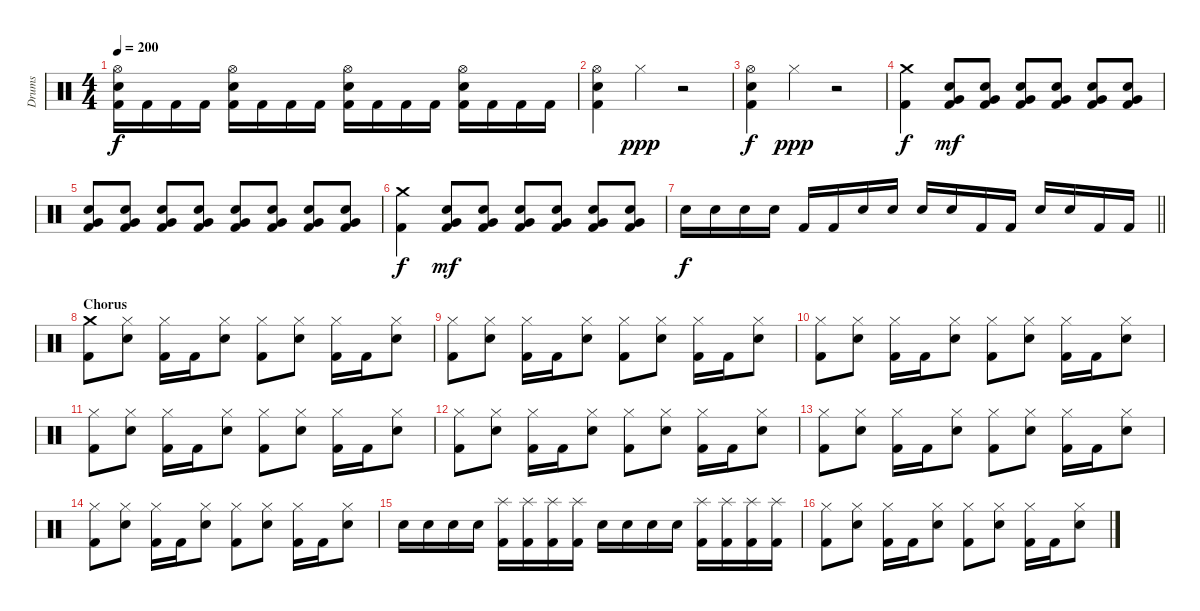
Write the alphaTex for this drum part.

\track ("Drums" "Drums") {instrument percussion}
\staff {score}
\articulation defaults
\ts (4 4)
\tempo 200
\clef neutral
\ks c
("Kick (hit) 2" "Snare (hit) 2" "Hi-Hat (open)").16{dy f} "Kick (hit) 2".16 "Kick (hit) 2".16 "Kick (hit) 2".16 ("Kick (hit) 2" "Snare (hit) 2" "Hi-Hat (open)").16 "Kick (hit) 2".16 "Kick (hit) 2".16 "Kick (hit) 2".16 ("Kick (hit) 2" "Snare (hit) 2" "Hi-Hat (open)").16 "Kick (hit) 2".16 "Kick (hit) 2".16 "Kick (hit) 2".16 ("Kick (hit) 2" "Snare (hit) 2" "Hi-Hat (open)").16 "Kick (hit) 2".16 "Kick (hit) 2".16 "Kick (hit) 2".16 |
("Kick (hit) 2" "Snare (hit) 2" "Hi-Hat (open)").4 "Hi-Hat (closed)".4{dy ppp} r.2 |
("Kick (hit) 2" "Snare (hit) 2" "Hi-Hat (open)").4{dy f} "Hi-Hat (closed)".4{dy ppp} r.2 |
("Kick (hit) 2" "Crash medium (hit)").4{dy f} ("Kick (hit) 2" "Snare (hit) 2" "Very Low Tom (hit)").8{dy mf} ("Kick (hit) 2" "Snare (hit) 2" "Very Low Tom (hit)").8 ("Kick (hit) 2" "Snare (hit) 2" "Very Low Tom (hit)").8 ("Kick (hit) 2" "Snare (hit) 2" "Very Low Tom (hit)").8 ("Kick (hit) 2" "Snare (hit) 2" "Very Low Tom (hit)").8 ("Kick (hit) 2" "Snare (hit) 2" "Very Low Tom (hit)").8 |
("Kick (hit) 2" "Snare (hit) 2" "Very Low Tom (hit)").8 ("Kick (hit) 2" "Snare (hit) 2" "Very Low Tom (hit)").8 ("Kick (hit) 2" "Snare (hit) 2" "Very Low Tom (hit)").8 ("Kick (hit) 2" "Snare (hit) 2" "Very Low Tom (hit)").8 ("Kick (hit) 2" "Snare (hit) 2" "Very Low Tom (hit)").8 ("Kick (hit) 2" "Snare (hit) 2" "Very Low Tom (hit)").8 ("Kick (hit) 2" "Snare (hit) 2" "Very Low Tom (hit)").8 ("Kick (hit) 2" "Snare (hit) 2" "Very Low Tom (hit)").8 |
("Kick (hit) 2" "Crash medium (hit)").4{dy f} ("Kick (hit) 2" "Snare (hit) 2" "Very Low Tom (hit)").8{dy mf} ("Kick (hit) 2" "Snare (hit) 2" "Very Low Tom (hit)").8 ("Kick (hit) 2" "Snare (hit) 2" "Very Low Tom (hit)").8 ("Kick (hit) 2" "Snare (hit) 2" "Very Low Tom (hit)").8 ("Kick (hit) 2" "Snare (hit) 2" "Very Low Tom (hit)").8 ("Kick (hit) 2" "Snare (hit) 2" "Very Low Tom (hit)").8 |
\barLineRight lightlight "Snare (hit) 2".16{dy f} "Snare (hit) 2".16 "Snare (hit) 2".16 "Snare (hit) 2".16 "Kick (hit) 2".16 "Kick (hit) 2".16 "Snare (hit) 2".16 "Snare (hit) 2".16 "Snare (hit) 2".16 "Snare (hit) 2".16 "Kick (hit) 2".16 "Kick (hit) 2".16 "Snare (hit) 2".16 "Snare (hit) 2".16 "Kick (hit) 2".16 "Kick (hit) 2".16
|
\section ("" "Chorus")
("Kick (hit) 2" "Crash medium (hit)").8 ("Snare (hit) 2" "Hi-Hat (closed)").8 ("Kick (hit) 2" "Hi-Hat (closed)").16 "Kick (hit) 2".16 ("Snare (hit) 2" "Hi-Hat (closed)").8 ("Kick (hit) 2" "Hi-Hat (closed)").8 ("Snare (hit) 2" "Hi-Hat (closed)").8 ("Kick (hit) 2" "Hi-Hat (closed)").16 "Kick (hit) 2".16 ("Snare (hit) 2" "Hi-Hat (closed)").8 |
("Kick (hit) 2" "Hi-Hat (closed)").8 ("Snare (hit) 2" "Hi-Hat (closed)").8 ("Kick (hit) 2" "Hi-Hat (closed)").16 "Kick (hit) 2".16 ("Snare (hit) 2" "Hi-Hat (closed)").8 ("Kick (hit) 2" "Hi-Hat (closed)").8 ("Snare (hit) 2" "Hi-Hat (closed)").8 ("Kick (hit) 2" "Hi-Hat (closed)").16 "Kick (hit) 2".16 ("Snare (hit) 2" "Hi-Hat (closed)").8 |
("Kick (hit) 2" "Hi-Hat (closed)").8 ("Snare (hit) 2" "Hi-Hat (closed)").8 ("Kick (hit) 2" "Hi-Hat (closed)").16 "Kick (hit) 2".16 ("Snare (hit) 2" "Hi-Hat (closed)").8 ("Kick (hit) 2" "Hi-Hat (closed)").8 ("Snare (hit) 2" "Hi-Hat (closed)").8 ("Kick (hit) 2" "Hi-Hat (closed)").16 "Kick (hit) 2".16 ("Snare (hit) 2" "Hi-Hat (closed)").8 |
("Kick (hit) 2" "Hi-Hat (closed)").8 ("Snare (hit) 2" "Hi-Hat (closed)").8 ("Kick (hit) 2" "Hi-Hat (closed)").16 "Kick (hit) 2".16 ("Snare (hit) 2" "Hi-Hat (closed)").8 ("Kick (hit) 2" "Hi-Hat (closed)").8 ("Snare (hit) 2" "Hi-Hat (closed)").8 ("Kick (hit) 2" "Hi-Hat (closed)").16 "Kick (hit) 2".16 ("Snare (hit) 2" "Hi-Hat (closed)").8 |
("Kick (hit) 2" "Hi-Hat (closed)").8 ("Snare (hit) 2" "Hi-Hat (closed)").8 ("Kick (hit) 2" "Hi-Hat (closed)").16 "Kick (hit) 2".16 ("Snare (hit) 2" "Hi-Hat (closed)").8 ("Kick (hit) 2" "Hi-Hat (closed)").8 ("Snare (hit) 2" "Hi-Hat (closed)").8 ("Kick (hit) 2" "Hi-Hat (closed)").16 "Kick (hit) 2".16 ("Snare (hit) 2" "Hi-Hat (closed)").8 |
("Kick (hit) 2" "Hi-Hat (closed)").8 ("Snare (hit) 2" "Hi-Hat (closed)").8 ("Kick (hit) 2" "Hi-Hat (closed)").16 "Kick (hit) 2".16 ("Snare (hit) 2" "Hi-Hat (closed)").8 ("Kick (hit) 2" "Hi-Hat (closed)").8 ("Snare (hit) 2" "Hi-Hat (closed)").8 ("Kick (hit) 2" "Hi-Hat (closed)").16 "Kick (hit) 2".16 ("Snare (hit) 2" "Hi-Hat (closed)").8 |
("Kick (hit) 2" "Hi-Hat (closed)").8 ("Snare (hit) 2" "Hi-Hat (closed)").8 ("Kick (hit) 2" "Hi-Hat (closed)").16 "Kick (hit) 2".16 ("Snare (hit) 2" "Hi-Hat (closed)").8 ("Kick (hit) 2" "Hi-Hat (closed)").8 ("Snare (hit) 2" "Hi-Hat (closed)").8 ("Kick (hit) 2" "Hi-Hat (closed)").16 "Kick (hit) 2".16 ("Snare (hit) 2" "Hi-Hat (closed)").8 |
"Snare (hit) 2".16 "Snare (hit) 2".16 "Snare (hit) 2".16 "Snare (hit) 2".16 ("Kick (hit) 2" "Splash (hit)").16 ("Kick (hit) 2" "Splash (hit)").16 ("Kick (hit) 2" "Splash (hit)").16 ("Kick (hit) 2" "Splash (hit)").16 "Snare (hit) 2".16 "Snare (hit) 2".16 "Snare (hit) 2".16 "Snare (hit) 2".16 ("Kick (hit) 2" "Splash (hit)").16 ("Kick (hit) 2" "Splash (hit)").16 ("Kick (hit) 2" "Splash (hit)").16 ("Kick (hit) 2" "Splash (hit)").16 |
("Kick (hit) 2" "Hi-Hat (closed)").8 ("Snare (hit) 2" "Hi-Hat (closed)").8 ("Kick (hit) 2" "Hi-Hat (closed)").16 "Kick (hit) 2".16 ("Snare (hit) 2" "Hi-Hat (closed)").8 ("Kick (hit) 2" "Hi-Hat (closed)").8 ("Snare (hit) 2" "Hi-Hat (closed)").8 ("Kick (hit) 2" "Hi-Hat (closed)").16 "Kick (hit) 2".16 ("Snare (hit) 2" "Hi-Hat (closed)").8
